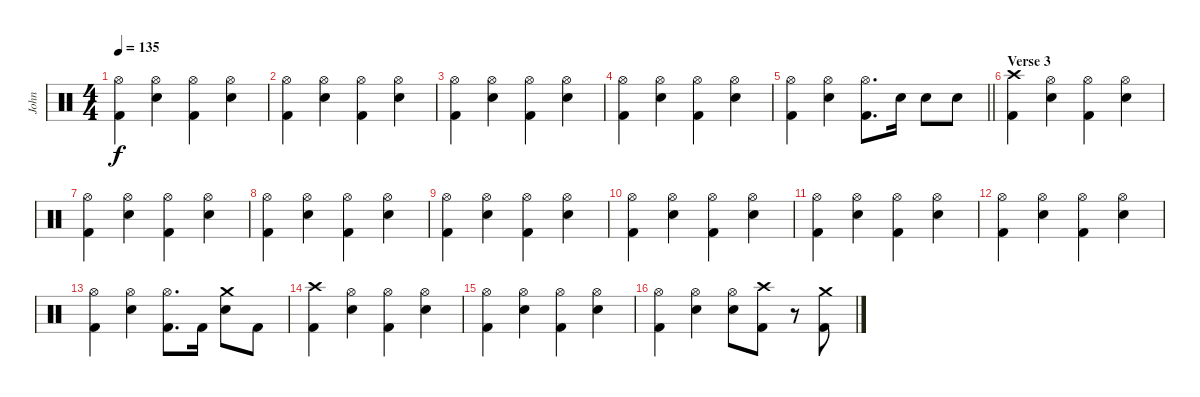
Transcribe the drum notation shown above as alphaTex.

\track ("John" "John") {instrument percussion}
\staff {score}
\articulation defaults
\ts (4 4)
\tempo 135
\clef neutral
\ks c
("Hi-Hat (open)" "Kick (hit) 2").4{dy f} ("Hi-Hat (open)" "Electric Snare (hit)").4 ("Hi-Hat (open)" "Kick (hit) 2").4 ("Hi-Hat (open)" "Electric Snare (hit)").4 |
("Hi-Hat (open)" "Kick (hit) 2").4 ("Hi-Hat (open)" "Electric Snare (hit)").4 ("Hi-Hat (open)" "Kick (hit) 2").4 ("Hi-Hat (open)" "Electric Snare (hit)").4 |
("Hi-Hat (open)" "Kick (hit) 2").4 ("Hi-Hat (open)" "Electric Snare (hit)").4 ("Hi-Hat (open)" "Kick (hit) 2").4 ("Hi-Hat (open)" "Electric Snare (hit)").4 |
("Hi-Hat (open)" "Kick (hit) 2").4 ("Hi-Hat (open)" "Electric Snare (hit)").4 ("Hi-Hat (open)" "Kick (hit) 2").4 ("Hi-Hat (open)" "Electric Snare (hit)").4 |
\barLineRight lightlight
("Hi-Hat (open)" "Kick (hit) 2").4 ("Hi-Hat (open)" "Electric Snare (hit)").4 ("Hi-Hat (open)" "Kick (hit) 2").8{d} "Electric Snare (hit)".16 "Electric Snare (hit)".8 "Electric Snare (hit)".8 |
\section ("" "Verse 3")
("Crash high (hit)" "Kick (hit) 2").4 ("Hi-Hat (open)" "Electric Snare (hit)").4 ("Hi-Hat (open)" "Kick (hit) 2").4 ("Hi-Hat (open)" "Electric Snare (hit)").4 |
("Hi-Hat (open)" "Kick (hit) 2").4 ("Hi-Hat (open)" "Electric Snare (hit)").4 ("Hi-Hat (open)" "Kick (hit) 2").4 ("Hi-Hat (open)" "Electric Snare (hit)").4 |
("Hi-Hat (open)" "Kick (hit) 2").4 ("Hi-Hat (open)" "Electric Snare (hit)").4 ("Hi-Hat (open)" "Kick (hit) 2").4 ("Hi-Hat (open)" "Electric Snare (hit)").4 |
("Hi-Hat (open)" "Kick (hit) 2").4 ("Hi-Hat (open)" "Electric Snare (hit)").4 ("Hi-Hat (open)" "Kick (hit) 2").4 ("Hi-Hat (open)" "Electric Snare (hit)").4 |
("Hi-Hat (open)" "Kick (hit) 2").4 ("Hi-Hat (open)" "Electric Snare (hit)").4 ("Hi-Hat (open)" "Kick (hit) 2").4 ("Hi-Hat (open)" "Electric Snare (hit)").4 |
("Hi-Hat (open)" "Kick (hit) 2").4 ("Hi-Hat (open)" "Electric Snare (hit)").4 ("Hi-Hat (open)" "Kick (hit) 2").4 ("Hi-Hat (open)" "Electric Snare (hit)").4 |
("Hi-Hat (open)" "Kick (hit) 2").4 ("Hi-Hat (open)" "Electric Snare (hit)").4 ("Hi-Hat (open)" "Kick (hit) 2").4 ("Hi-Hat (open)" "Electric Snare (hit)").4 |
("Hi-Hat (open)" "Kick (hit) 2").4 ("Hi-Hat (open)" "Electric Snare (hit)").4 ("Hi-Hat (open)" "Kick (hit) 2").8{d} "Kick (hit) 2".16 ("Crash medium (hit)" "Electric Snare (hit)").8 "Kick (hit) 2".8 |
("Crash high (hit)" "Kick (hit) 2").4 ("Hi-Hat (open)" "Electric Snare (hit)").4 ("Hi-Hat (open)" "Kick (hit) 2").4 ("Hi-Hat (open)" "Electric Snare (hit)").4 |
("Hi-Hat (open)" "Kick (hit) 2").4 ("Hi-Hat (open)" "Electric Snare (hit)").4 ("Hi-Hat (open)" "Kick (hit) 2").4 ("Hi-Hat (open)" "Electric Snare (hit)").4 |
("Hi-Hat (open)" "Kick (hit) 2").4 ("Hi-Hat (open)" "Electric Snare (hit)").4 ("Hi-Hat (open)" "Electric Snare (hit)").8 ("Crash high (hit)" "Kick (hit) 2").8 r.8 ("Crash medium (hit)" "Kick (hit) 2").8
